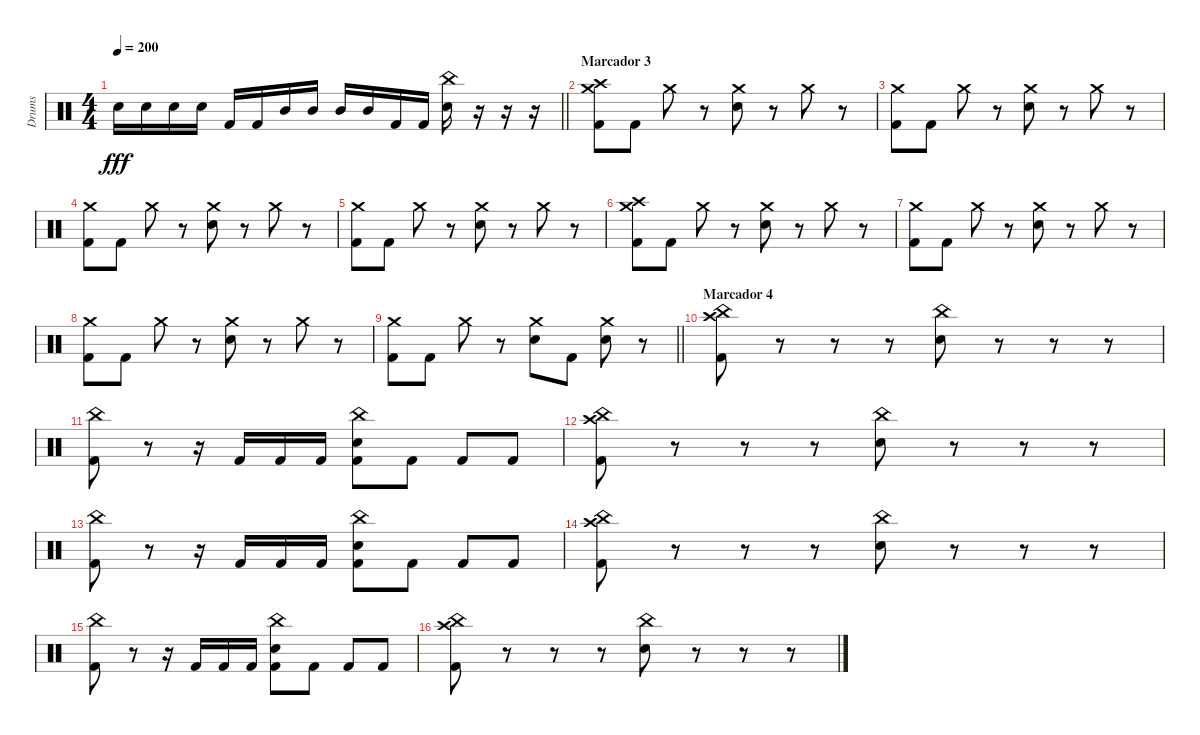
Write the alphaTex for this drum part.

\track ("Drums" "Drums") {instrument percussion}
\staff {score}
\articulation defaults
\ts (4 4)
\tempo 200
\clef neutral
\barLineRight lightlight
\ks c "Electric Snare (hit)".16{dy fff} "Electric Snare (hit)".16 "Electric Snare (hit)".16 "Electric Snare (hit)".16 "Kick (hit) 2".16 "Kick (hit) 2".16 "Mid Tom (hit)".16 "Mid Tom (hit)".16 "Mid Tom (hit)".16 "Mid Tom (hit)".16 "Kick (hit) 2".16 "Kick (hit) 2".16
("China (hit)" "Electric Snare (hit)").16 r.16 r.16 r.16 |
\section ("" "Marcador 3")
("Crash medium (hit)" "Crash high (hit)" "Kick (hit) 2").8 "Kick (hit) 2".8 "Crash medium (hit)".8 r.8 ("Crash medium (hit)" "Electric Snare (hit)").8 r.8 "Crash medium (hit)".8 r.8 |
("Crash medium (hit)" "Kick (hit) 2").8 "Kick (hit) 2".8 "Crash medium (hit)".8 r.8 ("Crash medium (hit)" "Electric Snare (hit)").8 r.8 "Crash medium (hit)".8 r.8 |
("Crash medium (hit)" "Kick (hit) 2").8 "Kick (hit) 2".8 "Crash medium (hit)".8 r.8 ("Crash medium (hit)" "Electric Snare (hit)").8 r.8 "Crash medium (hit)".8 r.8 |
("Crash medium (hit)" "Kick (hit) 2").8 "Kick (hit) 2".8 "Crash medium (hit)".8 r.8 ("Crash medium (hit)" "Electric Snare (hit)").8 r.8 "Crash medium (hit)".8 r.8 |
("Crash medium (hit)" "Crash high (hit)" "Kick (hit) 2").8 "Kick (hit) 2".8 "Crash medium (hit)".8 r.8 ("Crash medium (hit)" "Electric Snare (hit)").8 r.8 "Crash medium (hit)".8 r.8 |
("Crash medium (hit)" "Kick (hit) 2").8 "Kick (hit) 2".8 "Crash medium (hit)".8 r.8 ("Crash medium (hit)" "Electric Snare (hit)").8 r.8 "Crash medium (hit)".8 r.8 |
("Crash medium (hit)" "Kick (hit) 2").8 "Kick (hit) 2".8 "Crash medium (hit)".8 r.8 ("Crash medium (hit)" "Electric Snare (hit)").8 r.8 "Crash medium (hit)".8 r.8 |
\barLineRight lightlight
("Crash medium (hit)" "Kick (hit) 2").8 "Kick (hit) 2".8 "Crash medium (hit)".8 r.8 ("Crash medium (hit)" "Electric Snare (hit)").8 "Kick (hit) 2".8 ("Crash medium (hit)" "Electric Snare (hit)").8 r.8 |
\section ("" "Marcador 4")
("China (hit)" "Crash high (hit)" "Kick (hit) 2").8 r.8 r.8 r.8 ("China (hit)" "Electric Snare (hit)").8 r.8 r.8 r.8 |
("China (hit)" "Kick (hit) 2").8 r.8 r.16 "Kick (hit) 2".16 "Kick (hit) 2".16 "Kick (hit) 2".16 ("China (hit)" "Electric Snare (hit)" "Kick (hit) 2").8 "Kick (hit) 2".8 "Kick (hit) 2".8 "Kick (hit) 2".8 |
("China (hit)" "Crash high (hit)" "Kick (hit) 2").8 r.8 r.8 r.8 ("China (hit)" "Electric Snare (hit)").8 r.8 r.8 r.8 |
("China (hit)" "Kick (hit) 2").8 r.8 r.16 "Kick (hit) 2".16 "Kick (hit) 2".16 "Kick (hit) 2".16 ("China (hit)" "Electric Snare (hit)" "Kick (hit) 2").8 "Kick (hit) 2".8 "Kick (hit) 2".8 "Kick (hit) 2".8 |
("China (hit)" "Crash high (hit)" "Kick (hit) 2").8 r.8 r.8 r.8 ("China (hit)" "Electric Snare (hit)").8 r.8 r.8 r.8 |
("China (hit)" "Kick (hit) 2").8 r.8 r.16 "Kick (hit) 2".16 "Kick (hit) 2".16 "Kick (hit) 2".16 ("China (hit)" "Electric Snare (hit)" "Kick (hit) 2").8 "Kick (hit) 2".8 "Kick (hit) 2".8 "Kick (hit) 2".8 |
("China (hit)" "Crash high (hit)" "Kick (hit) 2").8 r.8 r.8 r.8 ("China (hit)" "Electric Snare (hit)").8 r.8 r.8 r.8
